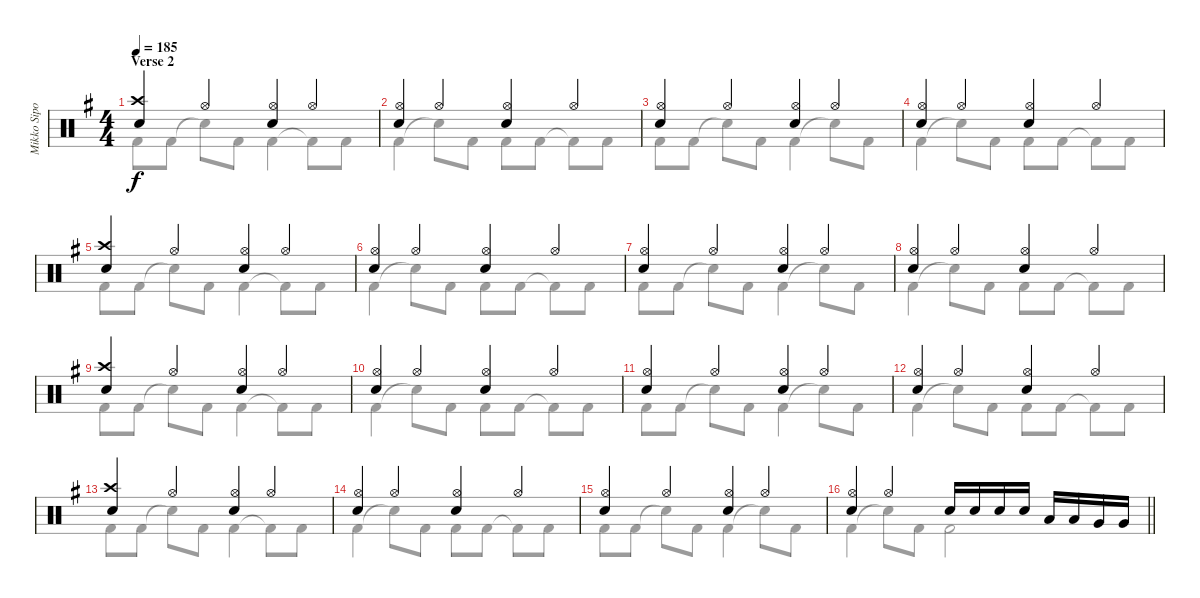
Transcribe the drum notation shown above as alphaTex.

\track ("Mikko Sipola (drums)" "Mikko Sipo") {instrument percussion}
\staff {score}
\articulation defaults
\voice
\ts (4 4)
\section ("" "Verse 2")
\tempo 185
\clef neutral
\ks eminor
("Crash high (hit)" "Electric Snare (hit)").4{dy f} "Hi-Hat (open)".4 ("Hi-Hat (open)" "Electric Snare (hit)").4 "Hi-Hat (open)".4 |
("Hi-Hat (open)" "Electric Snare (hit)").4 "Hi-Hat (open)".4 ("Hi-Hat (open)" "Electric Snare (hit)").4 "Hi-Hat (open)".4 |
("Hi-Hat (open)" "Electric Snare (hit)").4 "Hi-Hat (open)".4 ("Hi-Hat (open)" "Electric Snare (hit)").4 "Hi-Hat (open)".4 |
("Hi-Hat (open)" "Electric Snare (hit)").4 "Hi-Hat (open)".4 ("Hi-Hat (open)" "Electric Snare (hit)").4 "Hi-Hat (open)".4 |
("Crash high (hit)" "Electric Snare (hit)").4 "Hi-Hat (open)".4 ("Hi-Hat (open)" "Electric Snare (hit)").4 "Hi-Hat (open)".4 |
("Hi-Hat (open)" "Electric Snare (hit)").4 "Hi-Hat (open)".4 ("Hi-Hat (open)" "Electric Snare (hit)").4 "Hi-Hat (open)".4 |
("Hi-Hat (open)" "Electric Snare (hit)").4 "Hi-Hat (open)".4 ("Hi-Hat (open)" "Electric Snare (hit)").4 "Hi-Hat (open)".4 |
("Hi-Hat (open)" "Electric Snare (hit)").4 "Hi-Hat (open)".4 ("Hi-Hat (open)" "Electric Snare (hit)").4 "Hi-Hat (open)".4 |
("Crash high (hit)" "Electric Snare (hit)").4 "Hi-Hat (open)".4 ("Hi-Hat (open)" "Electric Snare (hit)").4 "Hi-Hat (open)".4 |
("Hi-Hat (open)" "Electric Snare (hit)").4 "Hi-Hat (open)".4 ("Hi-Hat (open)" "Electric Snare (hit)").4 "Hi-Hat (open)".4 |
("Hi-Hat (open)" "Electric Snare (hit)").4 "Hi-Hat (open)".4 ("Hi-Hat (open)" "Electric Snare (hit)").4 "Hi-Hat (open)".4 |
("Hi-Hat (open)" "Electric Snare (hit)").4 "Hi-Hat (open)".4 ("Hi-Hat (open)" "Electric Snare (hit)").4 "Hi-Hat (open)".4 |
("Crash high (hit)" "Electric Snare (hit)").4 "Hi-Hat (open)".4 ("Hi-Hat (open)" "Electric Snare (hit)").4 "Hi-Hat (open)".4 |
("Hi-Hat (open)" "Electric Snare (hit)").4 "Hi-Hat (open)".4 ("Hi-Hat (open)" "Electric Snare (hit)").4 "Hi-Hat (open)".4 |
("Hi-Hat (open)" "Electric Snare (hit)").4 "Hi-Hat (open)".4 ("Hi-Hat (open)" "Electric Snare (hit)").4 "Hi-Hat (open)".4 |
\barLineRight lightlight
("Hi-Hat (open)" "Electric Snare (hit)").4 "Hi-Hat (open)".4 "Electric Snare (hit)".16 "Electric Snare (hit)".16 "Electric Snare (hit)".16 "Electric Snare (hit)".16 "Low Tom (hit)".16 "Low Tom (hit)".16 "Very Low Tom (hit)".16 "Very Low Tom (hit)".16
\voice
\clef neutral
\ottava regular
\simile none
\ks eminor "Kick (hit) 2".8{dy f} "Kick (hit) 2".8 "Snare (hit)"{t}.8 "Kick (hit) 2".8 "Kick (hit) 2".4 "Kick (hit) 2"{t}.8 "Kick (hit) 2".8
|
"Kick (hit) 2".4 "Snare (hit)"{t}.8 "Kick (hit) 2".8 "Kick (hit) 2".8 "Kick (hit) 2".8 "Kick (hit) 2"{t}.8 "Kick (hit) 2".8 |
"Kick (hit) 2".8 "Kick (hit) 2".8 "Snare (hit)"{t}.8 "Kick (hit) 2".8 "Kick (hit) 2".4 "Snare (hit)"{t}.8 "Kick (hit) 2".8 |
"Kick (hit) 2".4 "Snare (hit)"{t}.8 "Kick (hit) 2".8 "Kick (hit) 2".8 "Kick (hit) 2".8 "Kick (hit) 2"{t}.8 "Kick (hit) 2".8 |
"Kick (hit) 2".8 "Kick (hit) 2".8 "Snare (hit)"{t}.8 "Kick (hit) 2".8 "Kick (hit) 2".4 "Kick (hit) 2"{t}.8 "Kick (hit) 2".8 |
"Kick (hit) 2".4 "Snare (hit)"{t}.8 "Kick (hit) 2".8 "Kick (hit) 2".8 "Kick (hit) 2".8 "Kick (hit) 2"{t}.8 "Kick (hit) 2".8 |
"Kick (hit) 2".8 "Kick (hit) 2".8 "Snare (hit)"{t}.8 "Kick (hit) 2".8 "Kick (hit) 2".4 "Snare (hit)"{t}.8 "Kick (hit) 2".8 |
"Kick (hit) 2".4 "Snare (hit)"{t}.8 "Kick (hit) 2".8 "Kick (hit) 2".8 "Kick (hit) 2".8 "Kick (hit) 2"{t}.8 "Kick (hit) 2".8 |
"Kick (hit) 2".8 "Kick (hit) 2".8 "Snare (hit)"{t}.8 "Kick (hit) 2".8 "Kick (hit) 2".4 "Kick (hit) 2"{t}.8 "Kick (hit) 2".8 |
"Kick (hit) 2".4 "Snare (hit)"{t}.8 "Kick (hit) 2".8 "Kick (hit) 2".8 "Kick (hit) 2".8 "Kick (hit) 2"{t}.8 "Kick (hit) 2".8 |
"Kick (hit) 2".8 "Kick (hit) 2".8 "Snare (hit)"{t}.8 "Kick (hit) 2".8 "Kick (hit) 2".4 "Snare (hit)"{t}.8 "Kick (hit) 2".8 |
"Kick (hit) 2".4 "Snare (hit)"{t}.8 "Kick (hit) 2".8 "Kick (hit) 2".8 "Kick (hit) 2".8 "Kick (hit) 2"{t}.8 "Kick (hit) 2".8 |
"Kick (hit) 2".8 "Kick (hit) 2".8 "Snare (hit)"{t}.8 "Kick (hit) 2".8 "Kick (hit) 2".4 "Kick (hit) 2"{t}.8 "Kick (hit) 2".8 |
"Kick (hit) 2".4 "Snare (hit)"{t}.8 "Kick (hit) 2".8 "Kick (hit) 2".8 "Kick (hit) 2".8 "Kick (hit) 2"{t}.8 "Kick (hit) 2".8 |
"Kick (hit) 2".8 "Kick (hit) 2".8 "Snare (hit)"{t}.8 "Kick (hit) 2".8 "Kick (hit) 2".4 "Snare (hit)"{t}.8 "Kick (hit) 2".8 |
\barLineRight lightlight "Kick (hit) 2".4 "Snare (hit)"{t}.8 "Kick (hit) 2".8 "Kick (hit) 2".2
